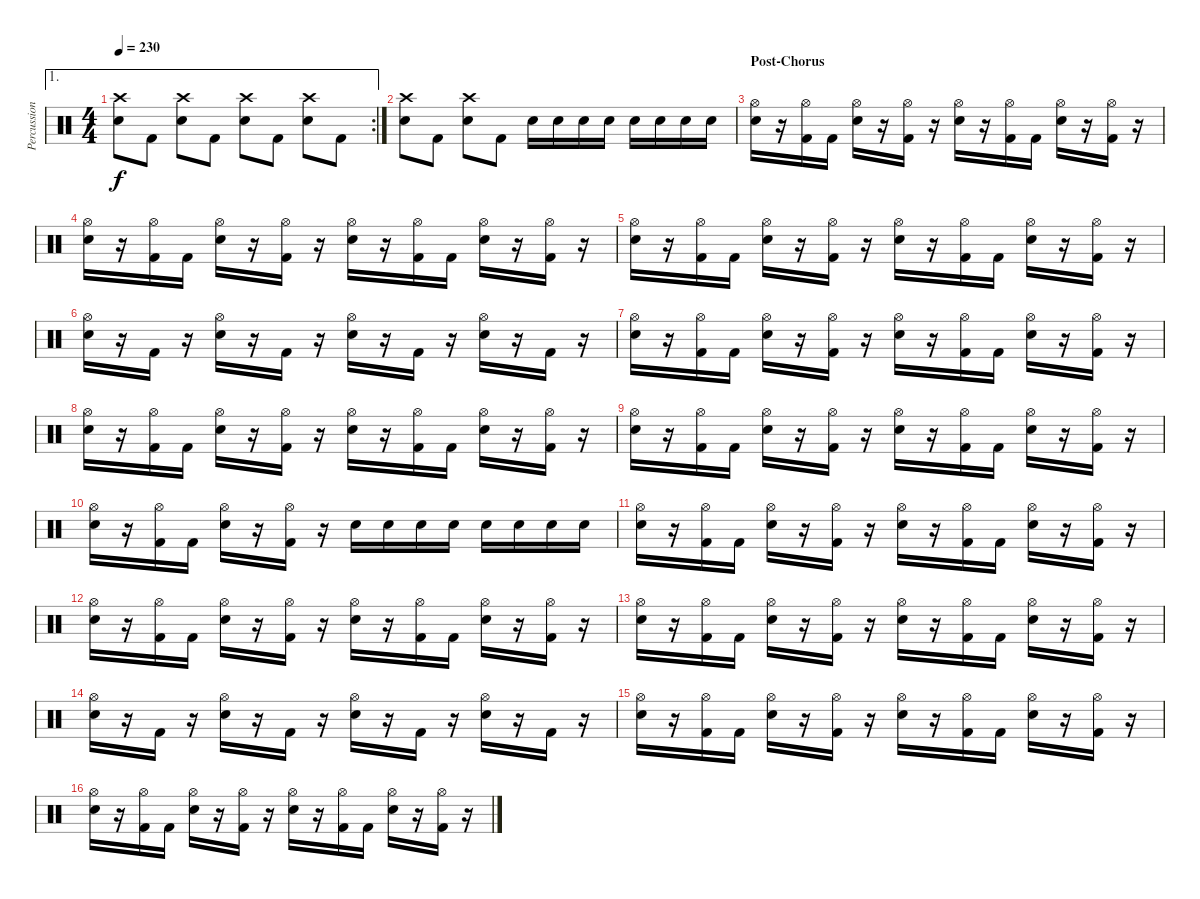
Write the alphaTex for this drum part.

\track ("Percussion" "Percussion") {instrument percussion}
\staff {score}
\articulation defaults
\ae 1
\rc 2
\ts (4 4)
\tempo 230
\clef neutral
\ks c
("Crash high (hit)" "Electric Snare (hit)").8{dy f} "Kick (hit) 2".8 ("Crash high (hit)" "Electric Snare (hit)").8 "Kick (hit) 2".8 ("Crash high (hit)" "Electric Snare (hit)").8 "Kick (hit) 2".8 ("Crash high (hit)" "Electric Snare (hit)").8 "Kick (hit) 2".8 |
("Crash high (hit)" "Electric Snare (hit)").8 "Kick (hit) 2".8 ("Crash high (hit)" "Electric Snare (hit)").8 "Kick (hit) 2".8 "Electric Snare (hit)".16 "Electric Snare (hit)".16 "Electric Snare (hit)".16 "Electric Snare (hit)".16 "Electric Snare (hit)".16 "Electric Snare (hit)".16 "Electric Snare (hit)".16 "Electric Snare (hit)".16 |
\section ("" "Post-Chorus")
("Hi-Hat (open)" "Electric Snare (hit)").16 r.16 ("Hi-Hat (open)" "Kick (hit) 2").16 "Kick (hit) 2".16 ("Hi-Hat (open)" "Electric Snare (hit)").16 r.16 ("Hi-Hat (open)" "Kick (hit) 2").16 r.16 ("Hi-Hat (open)" "Electric Snare (hit)").16 r.16 ("Hi-Hat (open)" "Kick (hit) 2").16 "Kick (hit) 2".16 ("Hi-Hat (open)" "Electric Snare (hit)").16 r.16 ("Hi-Hat (open)" "Kick (hit) 2").16 r.16 |
("Hi-Hat (open)" "Electric Snare (hit)").16 r.16 ("Hi-Hat (open)" "Kick (hit) 2").16 "Kick (hit) 2".16 ("Hi-Hat (open)" "Electric Snare (hit)").16 r.16 ("Hi-Hat (open)" "Kick (hit) 2").16 r.16 ("Hi-Hat (open)" "Electric Snare (hit)").16 r.16 ("Hi-Hat (open)" "Kick (hit) 2").16 "Kick (hit) 2".16 ("Hi-Hat (open)" "Electric Snare (hit)").16 r.16 ("Hi-Hat (open)" "Kick (hit) 2").16 r.16 |
("Hi-Hat (open)" "Electric Snare (hit)").16 r.16 ("Hi-Hat (open)" "Kick (hit) 2").16 "Kick (hit) 2".16 ("Hi-Hat (open)" "Electric Snare (hit)").16 r.16 ("Hi-Hat (open)" "Kick (hit) 2").16 r.16 ("Hi-Hat (open)" "Electric Snare (hit)").16 r.16 ("Hi-Hat (open)" "Kick (hit) 2").16 "Kick (hit) 2".16 ("Hi-Hat (open)" "Electric Snare (hit)").16 r.16 ("Hi-Hat (open)" "Kick (hit) 2").16 r.16 |
("Hi-Hat (open)" "Electric Snare (hit)").16 r.16 "Kick (hit) 2".16 r.16 ("Hi-Hat (open)" "Electric Snare (hit)").16 r.16 "Kick (hit) 2".16 r.16 ("Hi-Hat (open)" "Electric Snare (hit)").16 r.16 "Kick (hit) 2".16 r.16 ("Hi-Hat (open)" "Electric Snare (hit)").16 r.16 "Kick (hit) 2".16 r.16 |
("Hi-Hat (open)" "Electric Snare (hit)").16 r.16 ("Hi-Hat (open)" "Kick (hit) 2").16 "Kick (hit) 2".16 ("Hi-Hat (open)" "Electric Snare (hit)").16 r.16 ("Hi-Hat (open)" "Kick (hit) 2").16 r.16 ("Hi-Hat (open)" "Electric Snare (hit)").16 r.16 ("Hi-Hat (open)" "Kick (hit) 2").16 "Kick (hit) 2".16 ("Hi-Hat (open)" "Electric Snare (hit)").16 r.16 ("Hi-Hat (open)" "Kick (hit) 2").16 r.16 |
("Hi-Hat (open)" "Electric Snare (hit)").16 r.16 ("Hi-Hat (open)" "Kick (hit) 2").16 "Kick (hit) 2".16 ("Hi-Hat (open)" "Electric Snare (hit)").16 r.16 ("Hi-Hat (open)" "Kick (hit) 2").16 r.16 ("Hi-Hat (open)" "Electric Snare (hit)").16 r.16 ("Hi-Hat (open)" "Kick (hit) 2").16 "Kick (hit) 2".16 ("Hi-Hat (open)" "Electric Snare (hit)").16 r.16 ("Hi-Hat (open)" "Kick (hit) 2").16 r.16 |
("Hi-Hat (open)" "Electric Snare (hit)").16 r.16 ("Hi-Hat (open)" "Kick (hit) 2").16 "Kick (hit) 2".16 ("Hi-Hat (open)" "Electric Snare (hit)").16 r.16 ("Hi-Hat (open)" "Kick (hit) 2").16 r.16 ("Hi-Hat (open)" "Electric Snare (hit)").16 r.16 ("Hi-Hat (open)" "Kick (hit) 2").16 "Kick (hit) 2".16 ("Hi-Hat (open)" "Electric Snare (hit)").16 r.16 ("Hi-Hat (open)" "Kick (hit) 2").16 r.16 |
("Hi-Hat (open)" "Electric Snare (hit)").16 r.16 ("Hi-Hat (open)" "Kick (hit) 2").16 "Kick (hit) 2".16 ("Hi-Hat (open)" "Electric Snare (hit)").16 r.16 ("Hi-Hat (open)" "Kick (hit) 2").16 r.16 "Electric Snare (hit)".16 "Electric Snare (hit)".16 "Electric Snare (hit)".16 "Electric Snare (hit)".16 "Electric Snare (hit)".16 "Electric Snare (hit)".16 "Electric Snare (hit)".16 "Electric Snare (hit)".16 |
("Hi-Hat (open)" "Electric Snare (hit)").16 r.16 ("Hi-Hat (open)" "Kick (hit) 2").16 "Kick (hit) 2".16 ("Hi-Hat (open)" "Electric Snare (hit)").16 r.16 ("Hi-Hat (open)" "Kick (hit) 2").16 r.16 ("Hi-Hat (open)" "Electric Snare (hit)").16 r.16 ("Hi-Hat (open)" "Kick (hit) 2").16 "Kick (hit) 2".16 ("Hi-Hat (open)" "Electric Snare (hit)").16 r.16 ("Hi-Hat (open)" "Kick (hit) 2").16 r.16 |
("Hi-Hat (open)" "Electric Snare (hit)").16 r.16 ("Hi-Hat (open)" "Kick (hit) 2").16 "Kick (hit) 2".16 ("Hi-Hat (open)" "Electric Snare (hit)").16 r.16 ("Hi-Hat (open)" "Kick (hit) 2").16 r.16 ("Hi-Hat (open)" "Electric Snare (hit)").16 r.16 ("Hi-Hat (open)" "Kick (hit) 2").16 "Kick (hit) 2".16 ("Hi-Hat (open)" "Electric Snare (hit)").16 r.16 ("Hi-Hat (open)" "Kick (hit) 2").16 r.16 |
("Hi-Hat (open)" "Electric Snare (hit)").16 r.16 ("Hi-Hat (open)" "Kick (hit) 2").16 "Kick (hit) 2".16 ("Hi-Hat (open)" "Electric Snare (hit)").16 r.16 ("Hi-Hat (open)" "Kick (hit) 2").16 r.16 ("Hi-Hat (open)" "Electric Snare (hit)").16 r.16 ("Hi-Hat (open)" "Kick (hit) 2").16 "Kick (hit) 2".16 ("Hi-Hat (open)" "Electric Snare (hit)").16 r.16 ("Hi-Hat (open)" "Kick (hit) 2").16 r.16 |
("Hi-Hat (open)" "Electric Snare (hit)").16 r.16 "Kick (hit) 2".16 r.16 ("Hi-Hat (open)" "Electric Snare (hit)").16 r.16 "Kick (hit) 2".16 r.16 ("Hi-Hat (open)" "Electric Snare (hit)").16 r.16 "Kick (hit) 2".16 r.16 ("Hi-Hat (open)" "Electric Snare (hit)").16 r.16 "Kick (hit) 2".16 r.16 |
("Hi-Hat (open)" "Electric Snare (hit)").16 r.16 ("Hi-Hat (open)" "Kick (hit) 2").16 "Kick (hit) 2".16 ("Hi-Hat (open)" "Electric Snare (hit)").16 r.16 ("Hi-Hat (open)" "Kick (hit) 2").16 r.16 ("Hi-Hat (open)" "Electric Snare (hit)").16 r.16 ("Hi-Hat (open)" "Kick (hit) 2").16 "Kick (hit) 2".16 ("Hi-Hat (open)" "Electric Snare (hit)").16 r.16 ("Hi-Hat (open)" "Kick (hit) 2").16 r.16 |
("Hi-Hat (open)" "Electric Snare (hit)").16 r.16 ("Hi-Hat (open)" "Kick (hit) 2").16 "Kick (hit) 2".16 ("Hi-Hat (open)" "Electric Snare (hit)").16 r.16 ("Hi-Hat (open)" "Kick (hit) 2").16 r.16 ("Hi-Hat (open)" "Electric Snare (hit)").16 r.16 ("Hi-Hat (open)" "Kick (hit) 2").16 "Kick (hit) 2".16 ("Hi-Hat (open)" "Electric Snare (hit)").16 r.16 ("Hi-Hat (open)" "Kick (hit) 2").16 r.16
